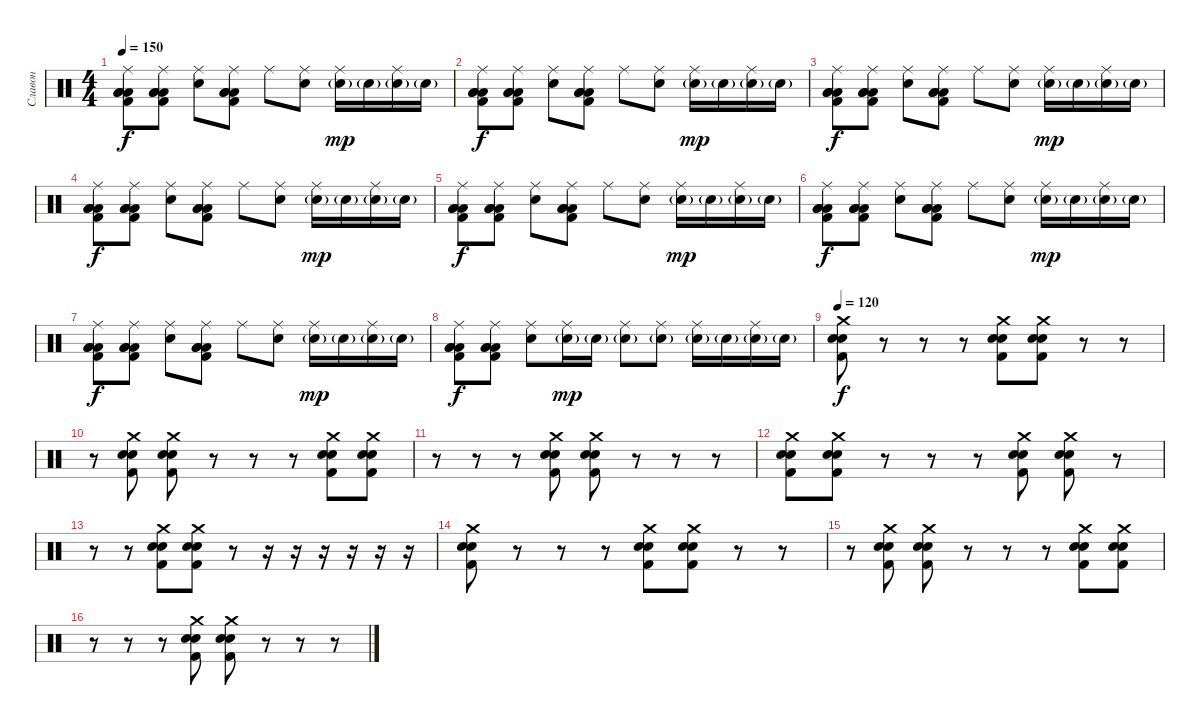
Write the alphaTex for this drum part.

\track ("Славон" "Славон") {instrument percussion}
\staff {score}
\articulation defaults
\ts (4 4)
\tempo 150
\tempo 185
\tempo 150
\clef neutral
\ks c
("Ride (middle)" "Kick (hit) 2" "Low Tom (hit)" "Low Tom (hit)" "Low Tom (hit)").8{dy f} ("Ride (middle)" "Kick (hit) 2" "Low Tom (hit)" "Low Tom (hit)" "Low Tom (hit)").8 ("Ride (middle)" "Electric Snare (hit)").8 ("Ride (middle)" "Kick (hit) 2" "Low Tom (hit)" "Low Tom (hit)" "Low Tom (hit)").8 "Ride (middle)".8 ("Ride (middle)" "Electric Snare (hit)").8 ("Ride (middle)" "Electric Snare (hit)"{g}).16{dy mp} "Electric Snare (hit)"{g}.16 ("Ride (middle)" "Electric Snare (hit)"{g}).16 "Electric Snare (hit)"{g}.16 |
("Ride (middle)" "Kick (hit) 2" "Low Tom (hit)" "Low Tom (hit)" "Low Tom (hit)").8{dy f} ("Ride (middle)" "Kick (hit) 2" "Low Tom (hit)" "Low Tom (hit)" "Low Tom (hit)").8 ("Ride (middle)" "Electric Snare (hit)").8 ("Ride (middle)" "Kick (hit) 2" "Low Tom (hit)" "Low Tom (hit)" "Low Tom (hit)").8 "Ride (middle)".8 ("Ride (middle)" "Electric Snare (hit)").8 ("Ride (middle)" "Electric Snare (hit)"{g}).16{dy mp} "Electric Snare (hit)"{g}.16 ("Ride (middle)" "Electric Snare (hit)"{g}).16 "Electric Snare (hit)"{g}.16 |
("Ride (middle)" "Kick (hit) 2" "Low Tom (hit)" "Low Tom (hit)" "Low Tom (hit)").8{dy f} ("Ride (middle)" "Kick (hit) 2" "Low Tom (hit)" "Low Tom (hit)" "Low Tom (hit)").8 ("Ride (middle)" "Electric Snare (hit)").8 ("Ride (middle)" "Kick (hit) 2" "Low Tom (hit)" "Low Tom (hit)" "Low Tom (hit)").8 "Ride (middle)".8 ("Ride (middle)" "Electric Snare (hit)").8 ("Ride (middle)" "Electric Snare (hit)"{g}).16{dy mp} "Electric Snare (hit)"{g}.16 ("Ride (middle)" "Electric Snare (hit)"{g}).16 "Electric Snare (hit)"{g}.16 |
("Ride (middle)" "Kick (hit) 2" "Low Tom (hit)" "Low Tom (hit)" "Low Tom (hit)").8{dy f} ("Ride (middle)" "Kick (hit) 2" "Low Tom (hit)" "Low Tom (hit)" "Low Tom (hit)").8 ("Ride (middle)" "Electric Snare (hit)").8 ("Ride (middle)" "Kick (hit) 2" "Low Tom (hit)" "Low Tom (hit)" "Low Tom (hit)").8 "Ride (middle)".8 ("Ride (middle)" "Electric Snare (hit)").8 ("Ride (middle)" "Electric Snare (hit)"{g}).16{dy mp} "Electric Snare (hit)"{g}.16 ("Ride (middle)" "Electric Snare (hit)"{g}).16 "Electric Snare (hit)"{g}.16 |
("Ride (middle)" "Kick (hit) 2" "Low Tom (hit)" "Low Tom (hit)" "Low Tom (hit)").8{dy f} ("Ride (middle)" "Kick (hit) 2" "Low Tom (hit)" "Low Tom (hit)" "Low Tom (hit)").8 ("Ride (middle)" "Electric Snare (hit)").8 ("Ride (middle)" "Kick (hit) 2" "Low Tom (hit)" "Low Tom (hit)" "Low Tom (hit)").8 "Ride (middle)".8 ("Ride (middle)" "Electric Snare (hit)").8 ("Ride (middle)" "Electric Snare (hit)"{g}).16{dy mp} "Electric Snare (hit)"{g}.16 ("Ride (middle)" "Electric Snare (hit)"{g}).16 "Electric Snare (hit)"{g}.16 |
("Ride (middle)" "Kick (hit) 2" "Low Tom (hit)" "Low Tom (hit)" "Low Tom (hit)").8{dy f} ("Ride (middle)" "Kick (hit) 2" "Low Tom (hit)" "Low Tom (hit)" "Low Tom (hit)").8 ("Ride (middle)" "Electric Snare (hit)").8 ("Ride (middle)" "Kick (hit) 2" "Low Tom (hit)" "Low Tom (hit)" "Low Tom (hit)").8 "Ride (middle)".8 ("Ride (middle)" "Electric Snare (hit)").8 ("Ride (middle)" "Electric Snare (hit)"{g}).16{dy mp} "Electric Snare (hit)"{g}.16 ("Ride (middle)" "Electric Snare (hit)"{g}).16 "Electric Snare (hit)"{g}.16 |
("Ride (middle)" "Kick (hit) 2" "Low Tom (hit)" "Low Tom (hit)" "Low Tom (hit)").8{dy f} ("Ride (middle)" "Kick (hit) 2" "Low Tom (hit)" "Low Tom (hit)" "Low Tom (hit)").8 ("Ride (middle)" "Electric Snare (hit)").8 ("Ride (middle)" "Kick (hit) 2" "Low Tom (hit)" "Low Tom (hit)" "Low Tom (hit)").8 "Ride (middle)".8 ("Ride (middle)" "Electric Snare (hit)").8 ("Ride (middle)" "Electric Snare (hit)"{g}).16{dy mp} "Electric Snare (hit)"{g}.16 ("Ride (middle)" "Electric Snare (hit)"{g}).16 "Electric Snare (hit)"{g}.16 |
("Ride (middle)" "Kick (hit) 2" "Low Tom (hit)" "Low Tom (hit)" "Low Tom (hit)").8{dy f} ("Ride (middle)" "Kick (hit) 2" "Low Tom (hit)" "Low Tom (hit)" "Low Tom (hit)").8 ("Ride (middle)" "Electric Snare (hit)").8 ("Ride (middle)" "Electric Snare (hit)"{g}).16{dy mp} "Electric Snare (hit)"{g}.16 ("Ride (middle)" "Electric Snare (hit)"{g}).8 ("Ride (middle)" "Electric Snare (hit)"{g}).8 ("Ride (middle)" "Electric Snare (hit)"{g}).16 "Electric Snare (hit)"{g}.16 ("Ride (middle)" "Electric Snare (hit)"{g}).16 "Electric Snare (hit)"{g}.16 |
\tempo 150
\tempo 120
("Electric Snare (hit)" "Snare (hit) 2" "Kick (hit) 2" "Crash medium (hit)").8{dy f} r.8 r.8 r.8 ("Electric Snare (hit)" "Snare (hit) 2" "Kick (hit) 2" "Crash medium (hit)").8 ("Electric Snare (hit)" "Snare (hit) 2" "Kick (hit) 2" "Crash medium (hit)").8 r.8 r.8 |
r.8 ("Electric Snare (hit)" "Snare (hit) 2" "Kick (hit) 2" "Crash medium (hit)").8 ("Electric Snare (hit)" "Snare (hit) 2" "Kick (hit) 2" "Crash medium (hit)").8 r.8 r.8 r.8 ("Electric Snare (hit)" "Snare (hit) 2" "Kick (hit) 2" "Crash medium (hit)").8 ("Electric Snare (hit)" "Snare (hit) 2" "Kick (hit) 2" "Crash medium (hit)").8 |
r.8 r.8 r.8 ("Electric Snare (hit)" "Snare (hit) 2" "Kick (hit) 2" "Crash medium (hit)").8 ("Electric Snare (hit)" "Snare (hit) 2" "Kick (hit) 2" "Crash medium (hit)").8 r.8 r.8 r.8 |
("Electric Snare (hit)" "Snare (hit) 2" "Kick (hit) 2" "Crash medium (hit)").8 ("Electric Snare (hit)" "Snare (hit) 2" "Kick (hit) 2" "Crash medium (hit)").8 r.8 r.8 r.8 ("Electric Snare (hit)" "Snare (hit) 2" "Kick (hit) 2" "Crash medium (hit)").8 ("Electric Snare (hit)" "Snare (hit) 2" "Kick (hit) 2" "Crash medium (hit)").8 r.8 |
r.8 r.8 ("Electric Snare (hit)" "Snare (hit) 2" "Kick (hit) 2" "Crash medium (hit)").8 ("Electric Snare (hit)" "Snare (hit) 2" "Kick (hit) 2" "Crash medium (hit)").8 r.8 r.16 r.16 r.16 r.16 r.16 r.16 |
("Electric Snare (hit)" "Snare (hit) 2" "Kick (hit) 2" "Crash medium (hit)").8 r.8 r.8 r.8 ("Electric Snare (hit)" "Snare (hit) 2" "Kick (hit) 2" "Crash medium (hit)").8 ("Electric Snare (hit)" "Snare (hit) 2" "Kick (hit) 2" "Crash medium (hit)").8 r.8 r.8 |
r.8 ("Electric Snare (hit)" "Snare (hit) 2" "Kick (hit) 2" "Crash medium (hit)").8 ("Electric Snare (hit)" "Snare (hit) 2" "Kick (hit) 2" "Crash medium (hit)").8 r.8 r.8 r.8 ("Electric Snare (hit)" "Snare (hit) 2" "Kick (hit) 2" "Crash medium (hit)").8 ("Electric Snare (hit)" "Snare (hit) 2" "Kick (hit) 2" "Crash medium (hit)").8 |
r.8 r.8 r.8 ("Electric Snare (hit)" "Snare (hit) 2" "Kick (hit) 2" "Crash medium (hit)").8 ("Electric Snare (hit)" "Snare (hit) 2" "Kick (hit) 2" "Crash medium (hit)").8 r.8 r.8 r.8
